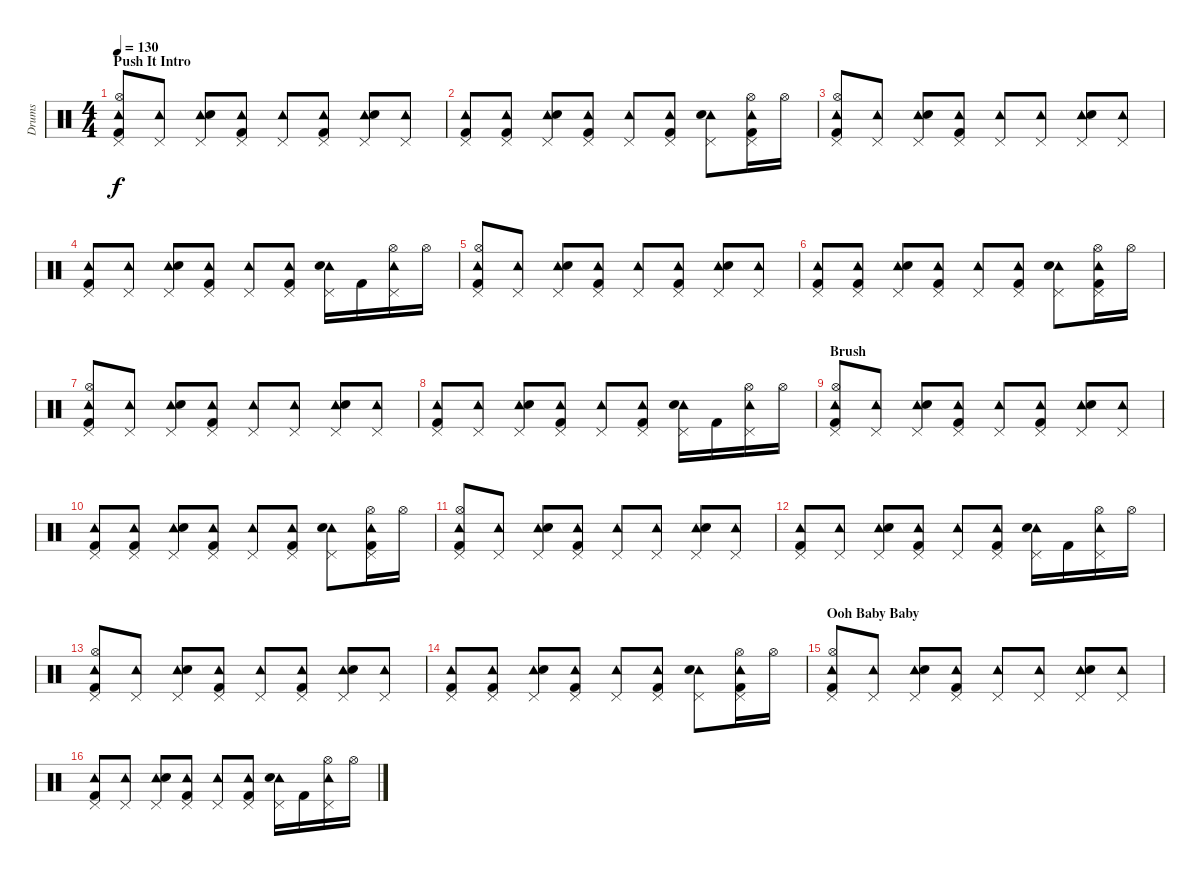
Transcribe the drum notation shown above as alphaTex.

\track ("Drums" "Drums") {instrument percussion}
\staff {score}
\articulation defaults
\ts (4 4)
\section ("" "Push It Intro")
\tempo 130
\clef neutral
\ks c
("Tambourine (hit)" "Pedal Hi-Hat (hit)" "Hi-Hat (open)" "Kick (hit) 2").8{dy f} ("Tambourine (hit)" "Pedal Hi-Hat (hit)").8 ("Tambourine (hit)" "Pedal Hi-Hat (hit)" "Electric Snare (hit)").8 ("Tambourine (hit)" "Pedal Hi-Hat (hit)" "Kick (hit) 2").8 ("Tambourine (hit)" "Pedal Hi-Hat (hit)").8 ("Tambourine (hit)" "Pedal Hi-Hat (hit)" "Kick (hit) 2").8 ("Tambourine (hit)" "Pedal Hi-Hat (hit)" "Electric Snare (hit)").8 ("Tambourine (hit)" "Pedal Hi-Hat (hit)").8 |
("Tambourine (hit)" "Pedal Hi-Hat (hit)" "Kick (hit) 2").8 ("Tambourine (hit)" "Pedal Hi-Hat (hit)" "Kick (hit) 2").8 ("Tambourine (hit)" "Pedal Hi-Hat (hit)" "Electric Snare (hit)").8 ("Tambourine (hit)" "Pedal Hi-Hat (hit)" "Kick (hit) 2").8 ("Tambourine (hit)" "Pedal Hi-Hat (hit)").8 ("Tambourine (hit)" "Pedal Hi-Hat (hit)" "Kick (hit) 2").8 ("Tambourine (hit)" "Pedal Hi-Hat (hit)" "Electric Snare (hit)").8 ("Tambourine (hit)" "Pedal Hi-Hat (hit)" "Hi-Hat (open)" "Kick (hit) 2").16 "Hi-Hat (open)".16 |
("Tambourine (hit)" "Pedal Hi-Hat (hit)" "Hi-Hat (open)" "Kick (hit) 2").8 ("Tambourine (hit)" "Pedal Hi-Hat (hit)").8 ("Tambourine (hit)" "Pedal Hi-Hat (hit)" "Electric Snare (hit)").8 ("Tambourine (hit)" "Pedal Hi-Hat (hit)" "Kick (hit) 2").8 ("Tambourine (hit)" "Pedal Hi-Hat (hit)").8 ("Tambourine (hit)" "Pedal Hi-Hat (hit)").8 ("Tambourine (hit)" "Pedal Hi-Hat (hit)" "Electric Snare (hit)").8 ("Tambourine (hit)" "Pedal Hi-Hat (hit)").8 |
("Tambourine (hit)" "Pedal Hi-Hat (hit)" "Kick (hit) 2").8 ("Tambourine (hit)" "Pedal Hi-Hat (hit)").8 ("Tambourine (hit)" "Pedal Hi-Hat (hit)" "Electric Snare (hit)").8 ("Tambourine (hit)" "Pedal Hi-Hat (hit)" "Kick (hit) 2").8 ("Tambourine (hit)" "Pedal Hi-Hat (hit)").8 ("Tambourine (hit)" "Pedal Hi-Hat (hit)" "Kick (hit) 2").8 ("Tambourine (hit)" "Pedal Hi-Hat (hit)" "Electric Snare (hit)").16 "Kick (hit) 2".16 ("Tambourine (hit)" "Pedal Hi-Hat (hit)" "Hi-Hat (open)").16 "Hi-Hat (open)".16 |
("Tambourine (hit)" "Pedal Hi-Hat (hit)" "Hi-Hat (open)" "Kick (hit) 2").8 ("Tambourine (hit)" "Pedal Hi-Hat (hit)").8 ("Tambourine (hit)" "Pedal Hi-Hat (hit)" "Electric Snare (hit)").8 ("Tambourine (hit)" "Pedal Hi-Hat (hit)" "Kick (hit) 2").8 ("Tambourine (hit)" "Pedal Hi-Hat (hit)").8 ("Tambourine (hit)" "Pedal Hi-Hat (hit)" "Kick (hit) 2").8 ("Tambourine (hit)" "Pedal Hi-Hat (hit)" "Electric Snare (hit)").8 ("Tambourine (hit)" "Pedal Hi-Hat (hit)").8 |
("Tambourine (hit)" "Pedal Hi-Hat (hit)" "Kick (hit) 2").8 ("Tambourine (hit)" "Pedal Hi-Hat (hit)" "Kick (hit) 2").8 ("Tambourine (hit)" "Pedal Hi-Hat (hit)" "Electric Snare (hit)").8 ("Tambourine (hit)" "Pedal Hi-Hat (hit)" "Kick (hit) 2").8 ("Tambourine (hit)" "Pedal Hi-Hat (hit)").8 ("Tambourine (hit)" "Pedal Hi-Hat (hit)" "Kick (hit) 2").8 ("Tambourine (hit)" "Pedal Hi-Hat (hit)" "Electric Snare (hit)").8 ("Tambourine (hit)" "Pedal Hi-Hat (hit)" "Hi-Hat (open)" "Kick (hit) 2").16 "Hi-Hat (open)".16 |
("Tambourine (hit)" "Pedal Hi-Hat (hit)" "Hi-Hat (open)" "Kick (hit) 2").8 ("Tambourine (hit)" "Pedal Hi-Hat (hit)").8 ("Tambourine (hit)" "Pedal Hi-Hat (hit)" "Electric Snare (hit)").8 ("Tambourine (hit)" "Pedal Hi-Hat (hit)" "Kick (hit) 2").8 ("Tambourine (hit)" "Pedal Hi-Hat (hit)").8 ("Tambourine (hit)" "Pedal Hi-Hat (hit)").8 ("Tambourine (hit)" "Pedal Hi-Hat (hit)" "Electric Snare (hit)").8 ("Tambourine (hit)" "Pedal Hi-Hat (hit)").8 |
("Tambourine (hit)" "Pedal Hi-Hat (hit)" "Kick (hit) 2").8 ("Tambourine (hit)" "Pedal Hi-Hat (hit)").8 ("Tambourine (hit)" "Pedal Hi-Hat (hit)" "Electric Snare (hit)").8 ("Tambourine (hit)" "Pedal Hi-Hat (hit)" "Kick (hit) 2").8 ("Tambourine (hit)" "Pedal Hi-Hat (hit)").8 ("Tambourine (hit)" "Pedal Hi-Hat (hit)" "Kick (hit) 2").8 ("Tambourine (hit)" "Pedal Hi-Hat (hit)" "Electric Snare (hit)").16 "Kick (hit) 2".16 ("Tambourine (hit)" "Pedal Hi-Hat (hit)" "Hi-Hat (open)").16 "Hi-Hat (open)".16 |
\section ("" "Brush")
("Tambourine (hit)" "Pedal Hi-Hat (hit)" "Hi-Hat (open)" "Kick (hit) 2").8 ("Tambourine (hit)" "Pedal Hi-Hat (hit)").8 ("Tambourine (hit)" "Pedal Hi-Hat (hit)" "Electric Snare (hit)").8 ("Tambourine (hit)" "Pedal Hi-Hat (hit)" "Kick (hit) 2").8 ("Tambourine (hit)" "Pedal Hi-Hat (hit)").8 ("Tambourine (hit)" "Pedal Hi-Hat (hit)" "Kick (hit) 2").8 ("Tambourine (hit)" "Pedal Hi-Hat (hit)" "Electric Snare (hit)").8 ("Tambourine (hit)" "Pedal Hi-Hat (hit)").8 |
("Tambourine (hit)" "Pedal Hi-Hat (hit)" "Kick (hit) 2").8 ("Tambourine (hit)" "Pedal Hi-Hat (hit)" "Kick (hit) 2").8 ("Tambourine (hit)" "Pedal Hi-Hat (hit)" "Electric Snare (hit)").8 ("Tambourine (hit)" "Pedal Hi-Hat (hit)" "Kick (hit) 2").8 ("Tambourine (hit)" "Pedal Hi-Hat (hit)").8 ("Tambourine (hit)" "Pedal Hi-Hat (hit)" "Kick (hit) 2").8 ("Tambourine (hit)" "Pedal Hi-Hat (hit)" "Electric Snare (hit)").8 ("Tambourine (hit)" "Pedal Hi-Hat (hit)" "Hi-Hat (open)" "Kick (hit) 2").16 "Hi-Hat (open)".16 |
("Tambourine (hit)" "Pedal Hi-Hat (hit)" "Hi-Hat (open)" "Kick (hit) 2").8 ("Tambourine (hit)" "Pedal Hi-Hat (hit)").8 ("Tambourine (hit)" "Pedal Hi-Hat (hit)" "Electric Snare (hit)").8 ("Tambourine (hit)" "Pedal Hi-Hat (hit)" "Kick (hit) 2").8 ("Tambourine (hit)" "Pedal Hi-Hat (hit)").8 ("Tambourine (hit)" "Pedal Hi-Hat (hit)").8 ("Tambourine (hit)" "Pedal Hi-Hat (hit)" "Electric Snare (hit)").8 ("Tambourine (hit)" "Pedal Hi-Hat (hit)").8 |
("Tambourine (hit)" "Pedal Hi-Hat (hit)" "Kick (hit) 2").8 ("Tambourine (hit)" "Pedal Hi-Hat (hit)").8 ("Tambourine (hit)" "Pedal Hi-Hat (hit)" "Electric Snare (hit)").8 ("Tambourine (hit)" "Pedal Hi-Hat (hit)" "Kick (hit) 2").8 ("Tambourine (hit)" "Pedal Hi-Hat (hit)").8 ("Tambourine (hit)" "Pedal Hi-Hat (hit)" "Kick (hit) 2").8 ("Tambourine (hit)" "Pedal Hi-Hat (hit)" "Electric Snare (hit)").16 "Kick (hit) 2".16 ("Tambourine (hit)" "Pedal Hi-Hat (hit)" "Hi-Hat (open)").16 "Hi-Hat (open)".16 |
("Tambourine (hit)" "Pedal Hi-Hat (hit)" "Hi-Hat (open)" "Kick (hit) 2").8 ("Tambourine (hit)" "Pedal Hi-Hat (hit)").8 ("Tambourine (hit)" "Pedal Hi-Hat (hit)" "Electric Snare (hit)").8 ("Tambourine (hit)" "Pedal Hi-Hat (hit)" "Kick (hit) 2").8 ("Tambourine (hit)" "Pedal Hi-Hat (hit)").8 ("Tambourine (hit)" "Pedal Hi-Hat (hit)" "Kick (hit) 2").8 ("Tambourine (hit)" "Pedal Hi-Hat (hit)" "Electric Snare (hit)").8 ("Tambourine (hit)" "Pedal Hi-Hat (hit)").8 |
("Tambourine (hit)" "Pedal Hi-Hat (hit)" "Kick (hit) 2").8 ("Tambourine (hit)" "Pedal Hi-Hat (hit)" "Kick (hit) 2").8 ("Tambourine (hit)" "Pedal Hi-Hat (hit)" "Electric Snare (hit)").8 ("Tambourine (hit)" "Pedal Hi-Hat (hit)" "Kick (hit) 2").8 ("Tambourine (hit)" "Pedal Hi-Hat (hit)").8 ("Tambourine (hit)" "Pedal Hi-Hat (hit)" "Kick (hit) 2").8 ("Tambourine (hit)" "Pedal Hi-Hat (hit)" "Electric Snare (hit)").8 ("Tambourine (hit)" "Pedal Hi-Hat (hit)" "Hi-Hat (open)" "Kick (hit) 2").16 "Hi-Hat (open)".16 |
\section ("" "Ooh Baby Baby")
("Tambourine (hit)" "Pedal Hi-Hat (hit)" "Hi-Hat (open)" "Kick (hit) 2").8 ("Tambourine (hit)" "Pedal Hi-Hat (hit)").8 ("Tambourine (hit)" "Pedal Hi-Hat (hit)" "Electric Snare (hit)").8 ("Tambourine (hit)" "Pedal Hi-Hat (hit)" "Kick (hit) 2").8 ("Tambourine (hit)" "Pedal Hi-Hat (hit)").8 ("Tambourine (hit)" "Pedal Hi-Hat (hit)").8 ("Tambourine (hit)" "Pedal Hi-Hat (hit)" "Electric Snare (hit)").8 ("Tambourine (hit)" "Pedal Hi-Hat (hit)").8 |
("Tambourine (hit)" "Pedal Hi-Hat (hit)" "Kick (hit) 2").8 ("Tambourine (hit)" "Pedal Hi-Hat (hit)").8 ("Tambourine (hit)" "Pedal Hi-Hat (hit)" "Electric Snare (hit)").8 ("Tambourine (hit)" "Pedal Hi-Hat (hit)" "Kick (hit) 2").8 ("Tambourine (hit)" "Pedal Hi-Hat (hit)").8 ("Tambourine (hit)" "Pedal Hi-Hat (hit)" "Kick (hit) 2").8 ("Tambourine (hit)" "Pedal Hi-Hat (hit)" "Electric Snare (hit)").16 "Kick (hit) 2".16 ("Tambourine (hit)" "Pedal Hi-Hat (hit)" "Hi-Hat (open)").16 "Hi-Hat (open)".16
